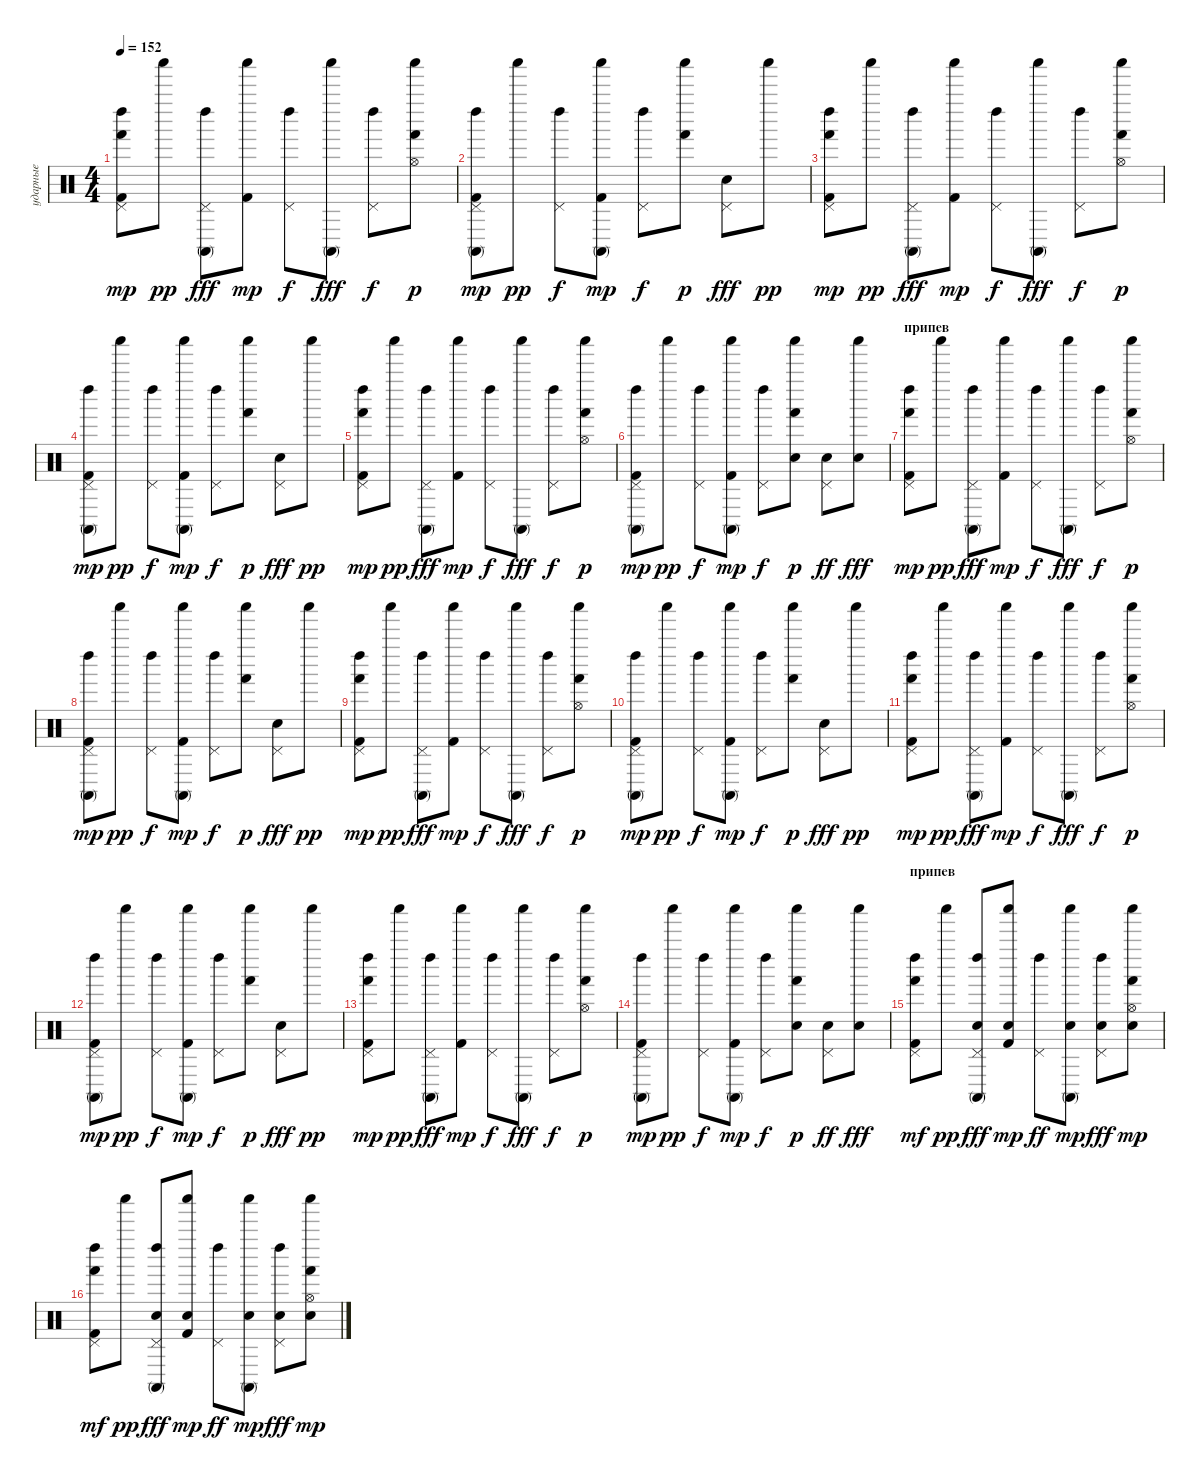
\track ("ударные" "ударные") {instrument percussion}
\staff {score}
\articulation defaults
\ts (4 4)
\tempo 152
\clef neutral
\ks c
("Pedal Hi-Hat (hit)" "Left Maraca (hit)" "Hand (hit)" "Kick (hit) 2").8{dy mp} "Shaker (hit)".8{dy pp} ("Pedal Hi-Hat (hit)" "Left Maraca (hit)" "Conga high (mute)").8{dy fff} ("Shaker (hit)" "Kick (hit) 2").8{dy mp} ("Pedal Hi-Hat (hit)" "Left Maraca (hit)").8{dy f} ("Shaker (hit)" "Conga high (mute)").8{dy fff} ("Pedal Hi-Hat (hit)" "Left Maraca (hit)").8{dy f} ("Shaker (hit)" "Hi-Hat (open)" "Hand (hit)").8{dy p} |
("Pedal Hi-Hat (hit)" "Left Maraca (hit)" "Conga high (mute)" "Kick (hit) 2").8{dy mp} "Shaker (hit)".8{dy pp} ("Pedal Hi-Hat (hit)" "Left Maraca (hit)").8{dy f} ("Shaker (hit)" "Conga high (mute)" "Kick (hit) 2").8{dy mp} ("Pedal Hi-Hat (hit)" "Left Maraca (hit)").8{dy f} ("Shaker (hit)" "Hand (hit)").8{dy p} ("Pedal Hi-Hat (hit)" "Snare (hit) 2").8{dy fff} "Shaker (hit)".8{dy pp} |
("Pedal Hi-Hat (hit)" "Left Maraca (hit)" "Hand (hit)" "Kick (hit) 2").8{dy mp} "Shaker (hit)".8{dy pp} ("Pedal Hi-Hat (hit)" "Left Maraca (hit)" "Conga high (mute)").8{dy fff} ("Shaker (hit)" "Kick (hit) 2").8{dy mp} ("Pedal Hi-Hat (hit)" "Left Maraca (hit)").8{dy f} ("Shaker (hit)" "Conga high (mute)").8{dy fff} ("Pedal Hi-Hat (hit)" "Left Maraca (hit)").8{dy f} ("Shaker (hit)" "Hi-Hat (open)" "Hand (hit)").8{dy p} |
("Pedal Hi-Hat (hit)" "Left Maraca (hit)" "Conga high (mute)" "Kick (hit) 2").8{dy mp} "Shaker (hit)".8{dy pp} ("Pedal Hi-Hat (hit)" "Left Maraca (hit)").8{dy f} ("Shaker (hit)" "Conga high (mute)" "Kick (hit) 2").8{dy mp} ("Pedal Hi-Hat (hit)" "Left Maraca (hit)").8{dy f} ("Shaker (hit)" "Hand (hit)").8{dy p} ("Pedal Hi-Hat (hit)" "Snare (hit) 2").8{dy fff} "Shaker (hit)".8{dy pp} |
("Pedal Hi-Hat (hit)" "Left Maraca (hit)" "Hand (hit)" "Kick (hit) 2").8{dy mp} "Shaker (hit)".8{dy pp} ("Pedal Hi-Hat (hit)" "Left Maraca (hit)" "Conga high (mute)").8{dy fff} ("Shaker (hit)" "Kick (hit) 2").8{dy mp} ("Pedal Hi-Hat (hit)" "Left Maraca (hit)").8{dy f} ("Shaker (hit)" "Conga high (mute)").8{dy fff} ("Pedal Hi-Hat (hit)" "Left Maraca (hit)").8{dy f} ("Shaker (hit)" "Hi-Hat (open)" "Hand (hit)").8{dy p} |
("Pedal Hi-Hat (hit)" "Left Maraca (hit)" "Conga high (mute)" "Kick (hit) 2").8{dy mp} "Shaker (hit)".8{dy pp} ("Pedal Hi-Hat (hit)" "Left Maraca (hit)").8{dy f} ("Shaker (hit)" "Conga high (mute)" "Kick (hit) 2").8{dy mp} ("Pedal Hi-Hat (hit)" "Left Maraca (hit)").8{dy f} ("Shaker (hit)" "Hand (hit)" "Snare (hit) 2").8{dy p} ("Pedal Hi-Hat (hit)" "Snare (hit) 2").8{dy ff} ("Shaker (hit)" "Snare (hit) 2").8{dy fff} |
\section ("" "припев")
("Pedal Hi-Hat (hit)" "Left Maraca (hit)" "Hand (hit)" "Kick (hit) 2").8{dy mp} "Shaker (hit)".8{dy pp} ("Pedal Hi-Hat (hit)" "Left Maraca (hit)" "Conga high (mute)").8{dy fff} ("Shaker (hit)" "Kick (hit) 2").8{dy mp} ("Pedal Hi-Hat (hit)" "Left Maraca (hit)").8{dy f} ("Shaker (hit)" "Conga high (mute)").8{dy fff} ("Pedal Hi-Hat (hit)" "Left Maraca (hit)").8{dy f} ("Shaker (hit)" "Hi-Hat (open)" "Hand (hit)").8{dy p} |
("Pedal Hi-Hat (hit)" "Left Maraca (hit)" "Conga high (mute)" "Kick (hit) 2").8{dy mp} "Shaker (hit)".8{dy pp} ("Pedal Hi-Hat (hit)" "Left Maraca (hit)").8{dy f} ("Shaker (hit)" "Conga high (mute)" "Kick (hit) 2").8{dy mp} ("Pedal Hi-Hat (hit)" "Left Maraca (hit)").8{dy f} ("Shaker (hit)" "Hand (hit)").8{dy p} ("Pedal Hi-Hat (hit)" "Snare (hit) 2").8{dy fff} "Shaker (hit)".8{dy pp} |
("Pedal Hi-Hat (hit)" "Left Maraca (hit)" "Hand (hit)" "Kick (hit) 2").8{dy mp} "Shaker (hit)".8{dy pp} ("Pedal Hi-Hat (hit)" "Left Maraca (hit)" "Conga high (mute)").8{dy fff} ("Shaker (hit)" "Kick (hit) 2").8{dy mp} ("Pedal Hi-Hat (hit)" "Left Maraca (hit)").8{dy f} ("Shaker (hit)" "Conga high (mute)").8{dy fff} ("Pedal Hi-Hat (hit)" "Left Maraca (hit)").8{dy f} ("Shaker (hit)" "Hi-Hat (open)" "Hand (hit)").8{dy p} |
("Pedal Hi-Hat (hit)" "Left Maraca (hit)" "Conga high (mute)" "Kick (hit) 2").8{dy mp} "Shaker (hit)".8{dy pp} ("Pedal Hi-Hat (hit)" "Left Maraca (hit)").8{dy f} ("Shaker (hit)" "Conga high (mute)" "Kick (hit) 2").8{dy mp} ("Pedal Hi-Hat (hit)" "Left Maraca (hit)").8{dy f} ("Shaker (hit)" "Hand (hit)").8{dy p} ("Pedal Hi-Hat (hit)" "Snare (hit) 2").8{dy fff} "Shaker (hit)".8{dy pp} |
("Pedal Hi-Hat (hit)" "Left Maraca (hit)" "Hand (hit)" "Kick (hit) 2").8{dy mp} "Shaker (hit)".8{dy pp} ("Pedal Hi-Hat (hit)" "Left Maraca (hit)" "Conga high (mute)").8{dy fff} ("Shaker (hit)" "Kick (hit) 2").8{dy mp} ("Pedal Hi-Hat (hit)" "Left Maraca (hit)").8{dy f} ("Shaker (hit)" "Conga high (mute)").8{dy fff} ("Pedal Hi-Hat (hit)" "Left Maraca (hit)").8{dy f} ("Shaker (hit)" "Hi-Hat (open)" "Hand (hit)").8{dy p} |
("Pedal Hi-Hat (hit)" "Left Maraca (hit)" "Conga high (mute)" "Kick (hit) 2").8{dy mp} "Shaker (hit)".8{dy pp} ("Pedal Hi-Hat (hit)" "Left Maraca (hit)").8{dy f} ("Shaker (hit)" "Conga high (mute)" "Kick (hit) 2").8{dy mp} ("Pedal Hi-Hat (hit)" "Left Maraca (hit)").8{dy f} ("Shaker (hit)" "Hand (hit)").8{dy p} ("Pedal Hi-Hat (hit)" "Snare (hit) 2").8{dy fff} "Shaker (hit)".8{dy pp} |
("Pedal Hi-Hat (hit)" "Left Maraca (hit)" "Hand (hit)" "Kick (hit) 2").8{dy mp} "Shaker (hit)".8{dy pp} ("Pedal Hi-Hat (hit)" "Left Maraca (hit)" "Conga high (mute)").8{dy fff} ("Shaker (hit)" "Kick (hit) 2").8{dy mp} ("Pedal Hi-Hat (hit)" "Left Maraca (hit)").8{dy f} ("Shaker (hit)" "Conga high (mute)").8{dy fff} ("Pedal Hi-Hat (hit)" "Left Maraca (hit)").8{dy f} ("Shaker (hit)" "Hi-Hat (open)" "Hand (hit)").8{dy p} |
("Pedal Hi-Hat (hit)" "Left Maraca (hit)" "Conga high (mute)" "Kick (hit) 2").8{dy mp} "Shaker (hit)".8{dy pp} ("Pedal Hi-Hat (hit)" "Left Maraca (hit)").8{dy f} ("Shaker (hit)" "Conga high (mute)" "Kick (hit) 2").8{dy mp} ("Pedal Hi-Hat (hit)" "Left Maraca (hit)").8{dy f} ("Shaker (hit)" "Hand (hit)" "Snare (hit) 2").8{dy p} ("Pedal Hi-Hat (hit)" "Snare (hit) 2").8{dy ff} ("Shaker (hit)" "Snare (hit) 2").8{dy fff} |
\section ("" "припев")
("Pedal Hi-Hat (hit)" "Left Maraca (hit)" "Hand (hit)" "Kick (hit) 2").8{dy mf} "Shaker (hit)".8{dy pp} ("Pedal Hi-Hat (hit)" "Left Maraca (hit)" "Conga high (mute)" "Snare (hit) 2").8{dy fff} ("Shaker (hit)" "Kick (hit) 2" "Electric Snare (hit)").8{dy mp} ("Pedal Hi-Hat (hit)" "Left Maraca (hit)").8{dy ff} ("Shaker (hit)" "Conga high (mute)" "Electric Snare (hit)").8{dy mp} ("Pedal Hi-Hat (hit)" "Left Maraca (hit)" "Snare (hit) 2").8{dy fff} ("Shaker (hit)" "Hi-Hat (open)" "Hand (hit)" "Electric Snare (hit)").8{dy mp} |
("Pedal Hi-Hat (hit)" "Left Maraca (hit)" "Hand (hit)" "Kick (hit) 2").8{dy mf} "Shaker (hit)".8{dy pp} ("Pedal Hi-Hat (hit)" "Left Maraca (hit)" "Conga high (mute)" "Snare (hit) 2").8{dy fff} ("Shaker (hit)" "Kick (hit) 2" "Electric Snare (hit)").8{dy mp} ("Pedal Hi-Hat (hit)" "Left Maraca (hit)").8{dy ff} ("Shaker (hit)" "Conga high (mute)" "Electric Snare (hit)").8{dy mp} ("Pedal Hi-Hat (hit)" "Left Maraca (hit)" "Snare (hit) 2").8{dy fff} ("Shaker (hit)" "Hi-Hat (open)" "Hand (hit)" "Electric Snare (hit)").8{dy mp}
